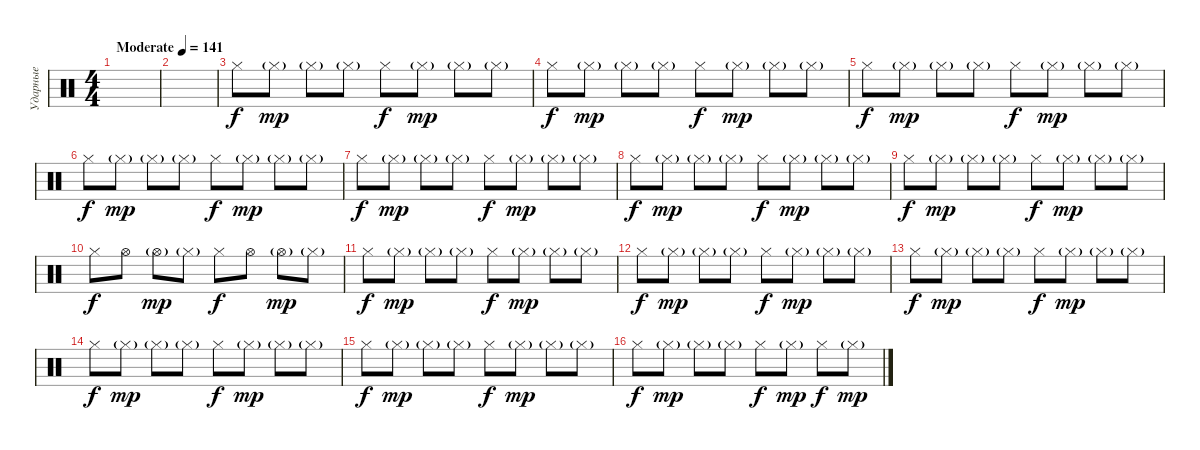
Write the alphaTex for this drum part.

\track ("Ударные" "Ударные") {instrument percussion}
\staff {score}
\articulation defaults
\ts (4 4)
\tempo (141 "Moderate")
\clef neutral
\ks c
|
|
"Hi-Hat (closed)".8 "Hi-Hat (closed)"{g}.8{dy mp} "Hi-Hat (closed)"{g}.8 "Hi-Hat (closed)"{g}.8 "Hi-Hat (closed)".8{dy f} "Hi-Hat (closed)"{g}.8{dy mp} "Hi-Hat (closed)"{g}.8 "Hi-Hat (closed)"{g}.8 |
"Hi-Hat (closed)".8{dy f} "Hi-Hat (closed)"{g}.8{dy mp} "Hi-Hat (closed)"{g}.8 "Hi-Hat (closed)"{g}.8 "Hi-Hat (closed)".8{dy f} "Hi-Hat (closed)"{g}.8{dy mp} "Hi-Hat (closed)"{g}.8 "Hi-Hat (closed)"{g}.8 |
"Hi-Hat (closed)".8{dy f} "Hi-Hat (closed)"{g}.8{dy mp} "Hi-Hat (closed)"{g}.8 "Hi-Hat (closed)"{g}.8 "Hi-Hat (closed)".8{dy f} "Hi-Hat (closed)"{g}.8{dy mp} "Hi-Hat (closed)"{g}.8 "Hi-Hat (closed)"{g}.8 |
"Hi-Hat (closed)".8{dy f} "Hi-Hat (closed)"{g}.8{dy mp} "Hi-Hat (closed)"{g}.8 "Hi-Hat (closed)"{g}.8 "Hi-Hat (closed)".8{dy f} "Hi-Hat (closed)"{g}.8{dy mp} "Hi-Hat (closed)"{g}.8 "Hi-Hat (closed)"{g}.8 |
"Hi-Hat (closed)".8{dy f} "Hi-Hat (closed)"{g}.8{dy mp} "Hi-Hat (closed)"{g}.8 "Hi-Hat (closed)"{g}.8 "Hi-Hat (closed)".8{dy f} "Hi-Hat (closed)"{g}.8{dy mp} "Hi-Hat (closed)"{g}.8 "Hi-Hat (closed)"{g}.8 |
"Hi-Hat (closed)".8{dy f} "Hi-Hat (closed)"{g}.8{dy mp} "Hi-Hat (closed)"{g}.8 "Hi-Hat (closed)"{g}.8 "Hi-Hat (closed)".8{dy f} "Hi-Hat (closed)"{g}.8{dy mp} "Hi-Hat (closed)"{g}.8 "Hi-Hat (closed)"{g}.8 |
"Hi-Hat (closed)".8{dy f} "Hi-Hat (closed)"{g}.8{dy mp} "Hi-Hat (closed)"{g}.8 "Hi-Hat (closed)"{g}.8 "Hi-Hat (closed)".8{dy f} "Hi-Hat (closed)"{g}.8{dy mp} "Hi-Hat (closed)"{g}.8 "Hi-Hat (closed)"{g}.8 |
"Hi-Hat (closed)".8{dy f} "Hi-Hat (open)".8 "Hi-Hat (open)"{g}.8{dy mp} "Hi-Hat (closed)"{g}.8 "Hi-Hat (closed)".8{dy f} "Hi-Hat (open)".8 "Hi-Hat (open)"{g}.8{dy mp} "Hi-Hat (closed)"{g}.8 |
"Hi-Hat (closed)".8{dy f} "Hi-Hat (closed)"{g}.8{dy mp} "Hi-Hat (closed)"{g}.8 "Hi-Hat (closed)"{g}.8 "Hi-Hat (closed)".8{dy f} "Hi-Hat (closed)"{g}.8{dy mp} "Hi-Hat (closed)"{g}.8 "Hi-Hat (closed)"{g}.8 |
"Hi-Hat (closed)".8{dy f} "Hi-Hat (closed)"{g}.8{dy mp} "Hi-Hat (closed)"{g}.8 "Hi-Hat (closed)"{g}.8 "Hi-Hat (closed)".8{dy f} "Hi-Hat (closed)"{g}.8{dy mp} "Hi-Hat (closed)"{g}.8 "Hi-Hat (closed)"{g}.8 |
"Hi-Hat (closed)".8{dy f} "Hi-Hat (closed)"{g}.8{dy mp} "Hi-Hat (closed)"{g}.8 "Hi-Hat (closed)"{g}.8 "Hi-Hat (closed)".8{dy f} "Hi-Hat (closed)"{g}.8{dy mp} "Hi-Hat (closed)"{g}.8 "Hi-Hat (closed)"{g}.8 |
"Hi-Hat (closed)".8{dy f} "Hi-Hat (closed)"{g}.8{dy mp} "Hi-Hat (closed)"{g}.8 "Hi-Hat (closed)"{g}.8 "Hi-Hat (closed)".8{dy f} "Hi-Hat (closed)"{g}.8{dy mp} "Hi-Hat (closed)"{g}.8 "Hi-Hat (closed)"{g}.8 |
"Hi-Hat (closed)".8{dy f} "Hi-Hat (closed)"{g}.8{dy mp} "Hi-Hat (closed)"{g}.8 "Hi-Hat (closed)"{g}.8 "Hi-Hat (closed)".8{dy f} "Hi-Hat (closed)"{g}.8{dy mp} "Hi-Hat (closed)"{g}.8 "Hi-Hat (closed)"{g}.8 |
"Hi-Hat (closed)".8{dy f} "Hi-Hat (closed)"{g}.8{dy mp} "Hi-Hat (closed)"{g}.8 "Hi-Hat (closed)"{g}.8 "Hi-Hat (closed)".8{dy f} "Hi-Hat (closed)"{g}.8{dy mp} "Hi-Hat (closed)".8{dy f} "Hi-Hat (closed)"{g}.8{dy mp}
